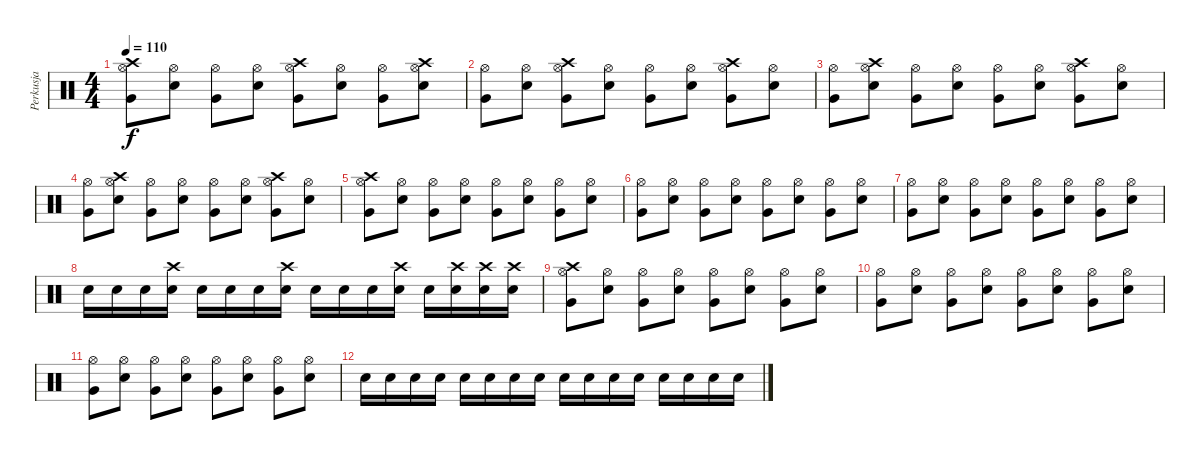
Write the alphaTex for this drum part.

\track ("Perkusja" "Perkusja") {instrument percussion}
\staff {score}
\articulation defaults
\ts (4 4)
\tempo 110
\clef neutral
\ks c
("Crash high (hit)" "Hi-Hat (open)" "Very Low Tom (hit)").8{dy f} ("Hi-Hat (open)" "Electric Snare (hit)").8 ("Hi-Hat (open)" "Very Low Tom (hit)").8 ("Hi-Hat (open)" "Electric Snare (hit)").8 ("Hi-Hat (open)" "Very Low Tom (hit)" "Crash high (hit)").8 ("Hi-Hat (open)" "Electric Snare (hit)").8 ("Hi-Hat (open)" "Very Low Tom (hit)").8 ("Crash high (hit)" "Hi-Hat (open)" "Electric Snare (hit)").8 |
("Hi-Hat (open)" "Very Low Tom (hit)").8 ("Hi-Hat (open)" "Electric Snare (hit)").8 ("Crash high (hit)" "Hi-Hat (open)" "Very Low Tom (hit)").8 ("Hi-Hat (open)" "Electric Snare (hit)").8 ("Hi-Hat (open)" "Very Low Tom (hit)").8 ("Hi-Hat (open)" "Electric Snare (hit)").8 ("Hi-Hat (open)" "Very Low Tom (hit)" "Crash high (hit)").8 ("Hi-Hat (open)" "Electric Snare (hit)").8 |
("Hi-Hat (open)" "Very Low Tom (hit)").8 ("Hi-Hat (open)" "Electric Snare (hit)" "Crash high (hit)").8 ("Hi-Hat (open)" "Very Low Tom (hit)").8 ("Hi-Hat (open)" "Electric Snare (hit)").8 ("Hi-Hat (open)" "Very Low Tom (hit)").8 ("Hi-Hat (open)" "Electric Snare (hit)").8 ("Hi-Hat (open)" "Very Low Tom (hit)" "Crash high (hit)").8 ("Hi-Hat (open)" "Electric Snare (hit)").8 |
("Hi-Hat (open)" "Very Low Tom (hit)").8 ("Hi-Hat (open)" "Electric Snare (hit)" "Crash high (hit)").8 ("Hi-Hat (open)" "Very Low Tom (hit)").8 ("Hi-Hat (open)" "Electric Snare (hit)").8 ("Hi-Hat (open)" "Very Low Tom (hit)").8 ("Hi-Hat (open)" "Electric Snare (hit)").8 ("Hi-Hat (open)" "Very Low Tom (hit)" "Crash high (hit)").8 ("Hi-Hat (open)" "Electric Snare (hit)").8 |
("Crash high (hit)" "Hi-Hat (open)" "Very Low Tom (hit)").8 ("Hi-Hat (open)" "Electric Snare (hit)").8 ("Hi-Hat (open)" "Very Low Tom (hit)").8 ("Hi-Hat (open)" "Electric Snare (hit)").8 ("Hi-Hat (open)" "Very Low Tom (hit)").8 ("Hi-Hat (open)" "Electric Snare (hit)").8 ("Hi-Hat (open)" "Very Low Tom (hit)").8 ("Hi-Hat (open)" "Electric Snare (hit)").8 |
("Hi-Hat (open)" "Very Low Tom (hit)").8 ("Hi-Hat (open)" "Electric Snare (hit)").8 ("Hi-Hat (open)" "Very Low Tom (hit)").8 ("Hi-Hat (open)" "Electric Snare (hit)").8 ("Hi-Hat (open)" "Very Low Tom (hit)").8 ("Hi-Hat (open)" "Electric Snare (hit)").8 ("Hi-Hat (open)" "Very Low Tom (hit)").8 ("Hi-Hat (open)" "Electric Snare (hit)").8 |
("Hi-Hat (open)" "Very Low Tom (hit)").8 ("Hi-Hat (open)" "Electric Snare (hit)").8 ("Hi-Hat (open)" "Very Low Tom (hit)").8 ("Hi-Hat (open)" "Electric Snare (hit)").8 ("Hi-Hat (open)" "Very Low Tom (hit)").8 ("Hi-Hat (open)" "Electric Snare (hit)").8 ("Hi-Hat (open)" "Very Low Tom (hit)").8 ("Hi-Hat (open)" "Electric Snare (hit)").8 |
"Electric Snare (hit)".16 "Electric Snare (hit)".16 "Electric Snare (hit)".16 ("Electric Snare (hit)" "Crash high (hit)").16 "Electric Snare (hit)".16 "Electric Snare (hit)".16 "Electric Snare (hit)".16 ("Electric Snare (hit)" "Crash high (hit)").16 "Electric Snare (hit)".16 "Electric Snare (hit)".16 "Electric Snare (hit)".16 ("Electric Snare (hit)" "Crash high (hit)").16 "Electric Snare (hit)".16 ("Electric Snare (hit)" "Crash high (hit)").16 ("Electric Snare (hit)" "Crash high (hit)").16 ("Electric Snare (hit)" "Crash high (hit)").16 |
("Crash high (hit)" "Hi-Hat (open)" "Very Low Tom (hit)").8 ("Hi-Hat (open)" "Electric Snare (hit)").8 ("Hi-Hat (open)" "Very Low Tom (hit)").8 ("Hi-Hat (open)" "Electric Snare (hit)").8 ("Hi-Hat (open)" "Very Low Tom (hit)").8 ("Hi-Hat (open)" "Electric Snare (hit)").8 ("Hi-Hat (open)" "Very Low Tom (hit)").8 ("Hi-Hat (open)" "Electric Snare (hit)").8 |
("Hi-Hat (open)" "Very Low Tom (hit)").8 ("Hi-Hat (open)" "Electric Snare (hit)").8 ("Hi-Hat (open)" "Very Low Tom (hit)").8 ("Hi-Hat (open)" "Electric Snare (hit)").8 ("Hi-Hat (open)" "Very Low Tom (hit)").8 ("Hi-Hat (open)" "Electric Snare (hit)").8 ("Hi-Hat (open)" "Very Low Tom (hit)").8 ("Hi-Hat (open)" "Electric Snare (hit)").8 |
("Hi-Hat (open)" "Very Low Tom (hit)").8 ("Hi-Hat (open)" "Electric Snare (hit)").8 ("Hi-Hat (open)" "Very Low Tom (hit)").8 ("Hi-Hat (open)" "Electric Snare (hit)").8 ("Hi-Hat (open)" "Very Low Tom (hit)").8 ("Hi-Hat (open)" "Electric Snare (hit)").8 ("Hi-Hat (open)" "Very Low Tom (hit)").8 ("Hi-Hat (open)" "Electric Snare (hit)").8 |
"Electric Snare (hit)".16 "Electric Snare (hit)".16 "Electric Snare (hit)".16 "Electric Snare (hit)".16 "Electric Snare (hit)".16 "Electric Snare (hit)".16 "Electric Snare (hit)".16 "Electric Snare (hit)".16 "Electric Snare (hit)".16 "Electric Snare (hit)".16 "Electric Snare (hit)".16 "Electric Snare (hit)".16 "Electric Snare (hit)".16 "Electric Snare (hit)".16 "Electric Snare (hit)".16 "Electric Snare (hit)".16
